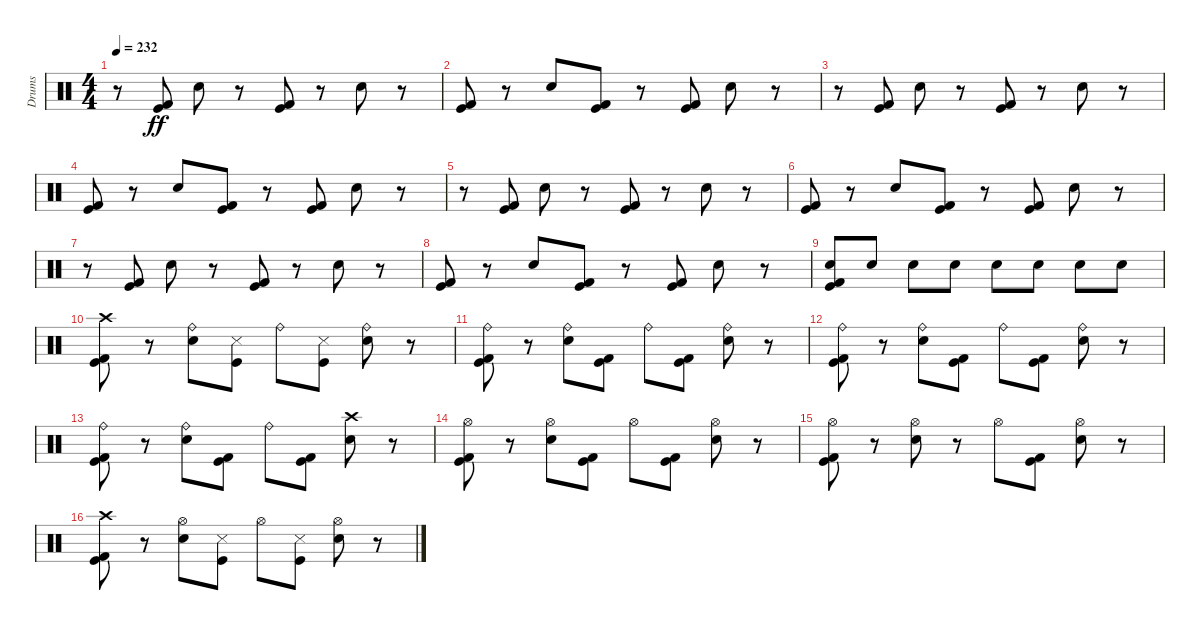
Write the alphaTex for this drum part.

\track ("Drums" "Drums") {instrument percussion}
\staff {score}
\articulation defaults
\ts (4 4)
\tempo 232
\clef neutral
\ks c
r.8{dy ff} ("Kick (hit)" "Kick (hit) 2").8 "Snare (hit) 2".8 r.8 ("Kick (hit)" "Kick (hit) 2").8 r.8 "Snare (hit) 2".8 r.8 |
("Kick (hit)" "Kick (hit) 2").8 r.8 "Snare (hit) 2".8 ("Kick (hit)" "Kick (hit) 2").8 r.8 ("Kick (hit)" "Kick (hit) 2").8 "Snare (hit) 2".8 r.8 |
r.8 ("Kick (hit)" "Kick (hit) 2").8 "Snare (hit) 2".8 r.8 ("Kick (hit)" "Kick (hit) 2").8 r.8 "Snare (hit) 2".8 r.8 |
("Kick (hit)" "Kick (hit) 2").8 r.8 "Snare (hit) 2".8 ("Kick (hit)" "Kick (hit) 2").8 r.8 ("Kick (hit)" "Kick (hit) 2").8 "Snare (hit) 2".8 r.8 |
r.8 ("Kick (hit)" "Kick (hit) 2").8 "Snare (hit) 2".8 r.8 ("Kick (hit)" "Kick (hit) 2").8 r.8 "Snare (hit) 2".8 r.8 |
("Kick (hit)" "Kick (hit) 2").8 r.8 "Snare (hit) 2".8 ("Kick (hit)" "Kick (hit) 2").8 r.8 ("Kick (hit)" "Kick (hit) 2").8 "Snare (hit) 2".8 r.8 |
r.8 ("Kick (hit)" "Kick (hit) 2").8 "Snare (hit) 2".8 r.8 ("Kick (hit)" "Kick (hit) 2").8 r.8 "Snare (hit) 2".8 r.8 |
("Kick (hit)" "Kick (hit) 2").8 r.8 "Snare (hit) 2".8 ("Kick (hit)" "Kick (hit) 2").8 r.8 ("Kick (hit)" "Kick (hit) 2").8 "Snare (hit) 2".8 r.8 |
("Kick (hit)" "Kick (hit) 2" "Snare (hit) 2").8 "Snare (hit) 2".8 "Snare (hit) 2".8 "Snare (hit) 2".8 "Snare (hit) 2".8 "Snare (hit) 2".8 "Snare (hit) 2".8 "Snare (hit) 2".8 |
("Kick (hit)" "Kick (hit) 2" "Crash high (hit)").8 r.8 ("Snare (hit) 2" "Ride (bell)").8 ("Kick (hit)" "Snare (side stick) 3").8 "Ride (bell)".8 ("Kick (hit)" "Snare (side stick) 3").8 ("Snare (hit) 2" "Ride (bell)").8 r.8 |
("Kick (hit)" "Kick (hit) 2" "Ride (bell)").8 r.8 ("Snare (hit) 2" "Ride (bell)").8 ("Kick (hit)" "Kick (hit) 2").8 "Ride (bell)".8 ("Kick (hit)" "Kick (hit) 2").8 ("Snare (hit) 2" "Ride (bell)").8 r.8 |
("Kick (hit)" "Kick (hit) 2" "Ride (bell)").8 r.8 ("Snare (hit) 2" "Ride (bell)").8 ("Kick (hit)" "Kick (hit) 2").8 "Ride (bell)".8 ("Kick (hit)" "Kick (hit) 2").8 ("Snare (hit) 2" "Ride (bell)").8 r.8 |
("Kick (hit)" "Kick (hit) 2" "Ride (bell)").8 r.8 ("Snare (hit) 2" "Ride (bell)").8 ("Kick (hit)" "Kick (hit) 2").8 "Ride (bell)".8 ("Kick (hit)" "Kick (hit) 2").8 ("Snare (hit) 2" "Crash high (hit)").8 r.8 |
("Kick (hit)" "Kick (hit) 2" "Hi-Hat (open)").8 r.8 ("Snare (hit) 2" "Hi-Hat (open)").8 ("Kick (hit)" "Kick (hit) 2").8 "Hi-Hat (open)".8 ("Kick (hit)" "Kick (hit) 2").8 ("Snare (hit) 2" "Hi-Hat (open)").8 r.8 |
("Kick (hit)" "Kick (hit) 2" "Hi-Hat (open)").8 r.8 ("Snare (hit) 2" "Hi-Hat (open)").8 r.8 "Hi-Hat (open)".8 ("Kick (hit)" "Kick (hit) 2").8 ("Snare (hit) 2" "Hi-Hat (open)").8 r.8 |
("Kick (hit)" "Kick (hit) 2" "Crash high (hit)").8 r.8 ("Snare (hit) 2" "Hi-Hat (open)").8 ("Kick (hit)" "Snare (side stick) 3").8 "Hi-Hat (open)".8 ("Kick (hit)" "Snare (side stick) 3").8 ("Snare (hit) 2" "Hi-Hat (open)").8 r.8
